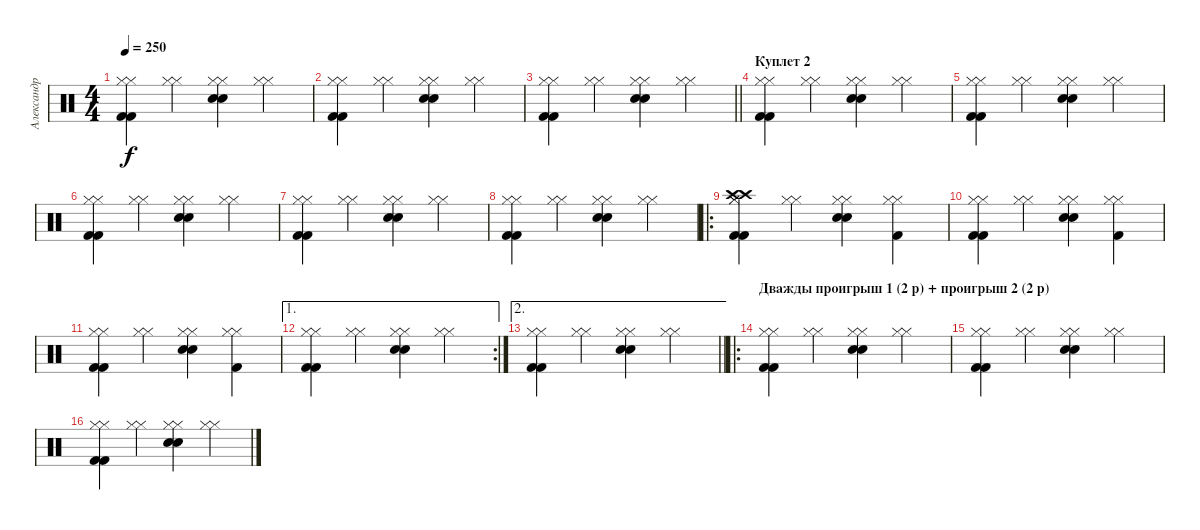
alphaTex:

\track ("Александр Андрюшкин" "Александр ") {instrument percussion}
\staff {score}
\articulation defaults
\ts (4 4)
\tempo 250
\clef neutral
\ks c
("Hi-Hat (closed)" "Hi-Hat (closed)" "Kick (hit) 2" "Kick (hit) 2").4{dy f} ("Hi-Hat (closed)" "Hi-Hat (closed)").4 ("Hi-Hat (closed)" "Hi-Hat (closed)" "Snare (hit) 2" "Snare (hit) 2").4 ("Hi-Hat (closed)" "Hi-Hat (closed)").4 |
("Hi-Hat (closed)" "Hi-Hat (closed)" "Kick (hit) 2" "Kick (hit) 2").4 ("Hi-Hat (closed)" "Hi-Hat (closed)").4 ("Hi-Hat (closed)" "Hi-Hat (closed)" "Snare (hit) 2" "Snare (hit) 2").4 ("Hi-Hat (closed)" "Hi-Hat (closed)").4 |
\barLineRight lightlight
("Hi-Hat (closed)" "Hi-Hat (closed)" "Kick (hit) 2" "Kick (hit) 2").4 ("Hi-Hat (closed)" "Hi-Hat (closed)").4 ("Hi-Hat (closed)" "Hi-Hat (closed)" "Snare (hit) 2" "Snare (hit) 2").4 ("Hi-Hat (closed)" "Hi-Hat (closed)").4 |
\section ("" "Куплет 2")
("Hi-Hat (closed)" "Hi-Hat (closed)" "Kick (hit) 2" "Kick (hit) 2").4 ("Hi-Hat (closed)" "Hi-Hat (closed)").4 ("Hi-Hat (closed)" "Hi-Hat (closed)" "Snare (hit) 2" "Snare (hit) 2").4 ("Hi-Hat (closed)" "Hi-Hat (closed)").4 |
("Hi-Hat (closed)" "Hi-Hat (closed)" "Kick (hit) 2" "Kick (hit) 2").4 ("Hi-Hat (closed)" "Hi-Hat (closed)").4 ("Hi-Hat (closed)" "Hi-Hat (closed)" "Snare (hit) 2" "Snare (hit) 2").4 ("Hi-Hat (closed)" "Hi-Hat (closed)").4 |
("Hi-Hat (closed)" "Hi-Hat (closed)" "Kick (hit) 2" "Kick (hit) 2").4 ("Hi-Hat (closed)" "Hi-Hat (closed)").4 ("Hi-Hat (closed)" "Hi-Hat (closed)" "Snare (hit) 2" "Snare (hit) 2").4 ("Hi-Hat (closed)" "Hi-Hat (closed)").4 |
("Hi-Hat (closed)" "Hi-Hat (closed)" "Kick (hit) 2" "Kick (hit) 2").4 ("Hi-Hat (closed)" "Hi-Hat (closed)").4 ("Hi-Hat (closed)" "Hi-Hat (closed)" "Snare (hit) 2" "Snare (hit) 2").4 ("Hi-Hat (closed)" "Hi-Hat (closed)").4 |
("Hi-Hat (closed)" "Hi-Hat (closed)" "Kick (hit) 2" "Kick (hit) 2").4 ("Hi-Hat (closed)" "Hi-Hat (closed)").4 ("Hi-Hat (closed)" "Hi-Hat (closed)" "Snare (hit) 2" "Snare (hit) 2").4 ("Hi-Hat (closed)" "Hi-Hat (closed)").4 |
\ro
("Hi-Hat (closed)" "Hi-Hat (closed)" "Crash high (hit)" "Crash high (hit)" "Kick (hit) 2" "Kick (hit) 2").4 ("Hi-Hat (closed)" "Hi-Hat (closed)").4 ("Hi-Hat (closed)" "Hi-Hat (closed)" "Snare (hit) 2" "Snare (hit) 2").4 ("Hi-Hat (closed)" "Hi-Hat (closed)" "Kick (hit) 2").4 |
("Hi-Hat (closed)" "Hi-Hat (closed)" "Kick (hit) 2" "Kick (hit) 2").4 ("Hi-Hat (closed)" "Hi-Hat (closed)").4 ("Hi-Hat (closed)" "Hi-Hat (closed)" "Snare (hit) 2" "Snare (hit) 2").4 ("Hi-Hat (closed)" "Hi-Hat (closed)" "Kick (hit) 2").4 |
("Hi-Hat (closed)" "Hi-Hat (closed)" "Kick (hit) 2" "Kick (hit) 2").4 ("Hi-Hat (closed)" "Hi-Hat (closed)").4 ("Hi-Hat (closed)" "Hi-Hat (closed)" "Snare (hit) 2" "Snare (hit) 2").4 ("Hi-Hat (closed)" "Hi-Hat (closed)" "Kick (hit) 2").4 |
\ae 1
\rc 2
("Hi-Hat (closed)" "Hi-Hat (closed)" "Kick (hit) 2" "Kick (hit) 2").4 ("Hi-Hat (closed)" "Hi-Hat (closed)").4 ("Hi-Hat (closed)" "Hi-Hat (closed)" "Snare (hit) 2" "Snare (hit) 2").4 ("Hi-Hat (closed)" "Hi-Hat (closed)").4 |
\ae 2
\barLineRight lightlight
("Hi-Hat (closed)" "Hi-Hat (closed)" "Kick (hit) 2" "Kick (hit) 2").4 ("Hi-Hat (closed)" "Hi-Hat (closed)").4 ("Hi-Hat (closed)" "Hi-Hat (closed)" "Snare (hit) 2" "Snare (hit) 2").4 ("Hi-Hat (closed)" "Hi-Hat (closed)").4 |
\ro
\section ("" "Дважды проигрыш 1 (2 р) + проигрыш 2 (2 р)")
("Hi-Hat (closed)" "Hi-Hat (closed)" "Kick (hit) 2" "Kick (hit) 2").4 ("Hi-Hat (closed)" "Hi-Hat (closed)").4 ("Hi-Hat (closed)" "Hi-Hat (closed)" "Snare (hit) 2" "Snare (hit) 2").4 ("Hi-Hat (closed)" "Hi-Hat (closed)").4 |
("Hi-Hat (closed)" "Hi-Hat (closed)" "Kick (hit) 2" "Kick (hit) 2").4 ("Hi-Hat (closed)" "Hi-Hat (closed)").4 ("Hi-Hat (closed)" "Hi-Hat (closed)" "Snare (hit) 2" "Snare (hit) 2").4 ("Hi-Hat (closed)" "Hi-Hat (closed)").4 |
("Hi-Hat (closed)" "Hi-Hat (closed)" "Kick (hit) 2" "Kick (hit) 2").4 ("Hi-Hat (closed)" "Hi-Hat (closed)").4 ("Hi-Hat (closed)" "Hi-Hat (closed)" "Snare (hit) 2" "Snare (hit) 2").4 ("Hi-Hat (closed)" "Hi-Hat (closed)").4
